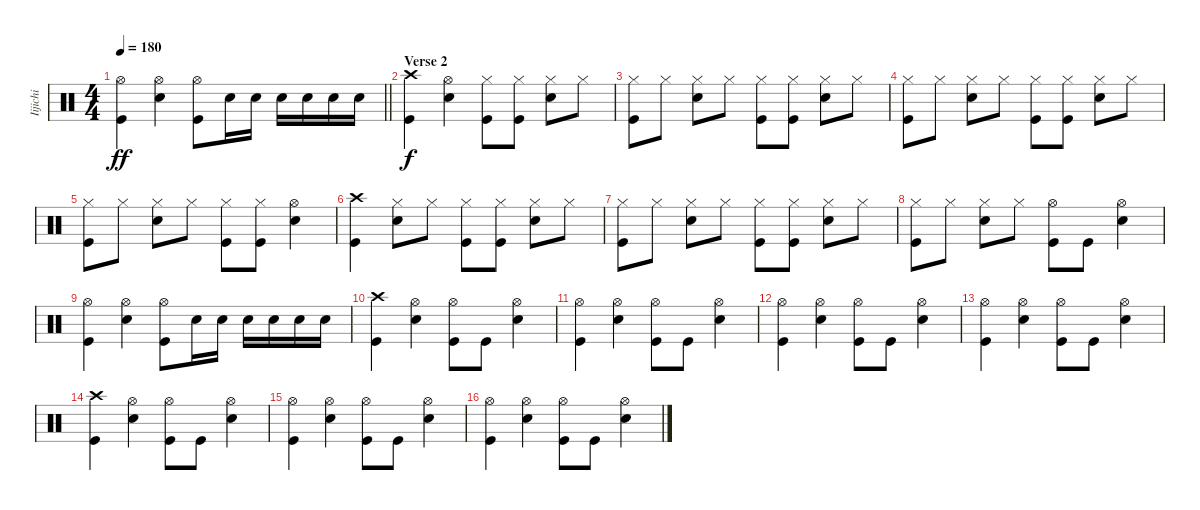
\track ("Iijichi" "Iijichi") {instrument percussion}
\staff {score}
\articulation defaults
\ts (4 4)
\tempo 180
\clef neutral
\barLineRight lightlight
\ks c
("Kick (hit)" "Hi-Hat (open)").4{dy ff} ("Electric Snare (hit)" "Hi-Hat (open)").4 ("Kick (hit)" "Hi-Hat (open)").8 "Electric Snare (hit)".16 "Electric Snare (hit)".16 "Electric Snare (hit)".16 "Electric Snare (hit)".16 "Electric Snare (hit)".16 "Electric Snare (hit)".16 |
\section ("" "Verse 2")
("Kick (hit)" "Crash high (hit)").4{dy f} ("Electric Snare (hit)" "Hi-Hat (open)").4 ("Hi-Hat (closed)" "Kick (hit)").8 ("Hi-Hat (closed)" "Kick (hit)").8 ("Hi-Hat (closed)" "Electric Snare (hit)").8 "Hi-Hat (closed)".8 |
("Hi-Hat (closed)" "Kick (hit)").8 "Hi-Hat (closed)".8 ("Hi-Hat (closed)" "Electric Snare (hit)").8 "Hi-Hat (closed)".8 ("Hi-Hat (closed)" "Kick (hit)").8 ("Hi-Hat (closed)" "Kick (hit)").8 ("Hi-Hat (closed)" "Electric Snare (hit)").8 "Hi-Hat (closed)".8 |
("Hi-Hat (closed)" "Kick (hit)").8 "Hi-Hat (closed)".8 ("Hi-Hat (closed)" "Electric Snare (hit)").8 "Hi-Hat (closed)".8 ("Hi-Hat (closed)" "Kick (hit)").8 ("Hi-Hat (closed)" "Kick (hit)").8 ("Hi-Hat (closed)" "Electric Snare (hit)").8 "Hi-Hat (closed)".8 |
("Hi-Hat (closed)" "Kick (hit)").8 "Hi-Hat (closed)".8 ("Hi-Hat (closed)" "Electric Snare (hit)").8 "Hi-Hat (closed)".8 ("Hi-Hat (closed)" "Kick (hit)").8 ("Hi-Hat (closed)" "Kick (hit)").8 ("Electric Snare (hit)" "Hi-Hat (open)").4 |
("Kick (hit)" "Crash high (hit)").4 ("Hi-Hat (closed)" "Electric Snare (hit)").8 "Hi-Hat (closed)".8 ("Hi-Hat (closed)" "Kick (hit)").8 ("Hi-Hat (closed)" "Kick (hit)").8 ("Hi-Hat (closed)" "Electric Snare (hit)").8 "Hi-Hat (closed)".8 |
("Hi-Hat (closed)" "Kick (hit)").8 "Hi-Hat (closed)".8 ("Hi-Hat (closed)" "Electric Snare (hit)").8 "Hi-Hat (closed)".8 ("Hi-Hat (closed)" "Kick (hit)").8 ("Hi-Hat (closed)" "Kick (hit)").8 ("Hi-Hat (closed)" "Electric Snare (hit)").8 "Hi-Hat (closed)".8 |
("Hi-Hat (closed)" "Kick (hit)").8 "Hi-Hat (closed)".8 ("Hi-Hat (closed)" "Electric Snare (hit)").8 "Hi-Hat (closed)".8 ("Hi-Hat (open)" "Kick (hit)").8 "Kick (hit)".8 ("Hi-Hat (open)" "Electric Snare (hit)").4 |
("Hi-Hat (open)" "Kick (hit)").4 ("Hi-Hat (open)" "Electric Snare (hit)").4 ("Hi-Hat (open)" "Kick (hit)").8 "Electric Snare (hit)".16 "Electric Snare (hit)".16 "Electric Snare (hit)".16 "Electric Snare (hit)".16 "Electric Snare (hit)".16 "Electric Snare (hit)".16 |
("Kick (hit)" "Crash high (hit)").4 ("Electric Snare (hit)" "Hi-Hat (open)").4 ("Hi-Hat (open)" "Kick (hit)").8 "Kick (hit)".8 ("Hi-Hat (open)" "Electric Snare (hit)").4 |
("Hi-Hat (open)" "Kick (hit)").4 ("Hi-Hat (open)" "Electric Snare (hit)").4 ("Hi-Hat (open)" "Kick (hit)").8 "Kick (hit)".8 ("Hi-Hat (open)" "Electric Snare (hit)").4 |
("Hi-Hat (open)" "Kick (hit)").4 ("Hi-Hat (open)" "Electric Snare (hit)").4 ("Hi-Hat (open)" "Kick (hit)").8 "Kick (hit)".8 ("Hi-Hat (open)" "Electric Snare (hit)").4 |
("Hi-Hat (open)" "Kick (hit)").4 ("Hi-Hat (open)" "Electric Snare (hit)").4 ("Hi-Hat (open)" "Kick (hit)").8 "Kick (hit)".8 ("Hi-Hat (open)" "Electric Snare (hit)").4 |
("Kick (hit)" "Crash high (hit)").4 ("Electric Snare (hit)" "Hi-Hat (open)").4 ("Hi-Hat (open)" "Kick (hit)").8 "Kick (hit)".8 ("Hi-Hat (open)" "Electric Snare (hit)").4 |
("Hi-Hat (open)" "Kick (hit)").4 ("Hi-Hat (open)" "Electric Snare (hit)").4 ("Hi-Hat (open)" "Kick (hit)").8 "Kick (hit)".8 ("Hi-Hat (open)" "Electric Snare (hit)").4 |
("Hi-Hat (open)" "Kick (hit)").4 ("Hi-Hat (open)" "Electric Snare (hit)").4 ("Hi-Hat (open)" "Kick (hit)").8 "Kick (hit)".8 ("Hi-Hat (open)" "Electric Snare (hit)").4
